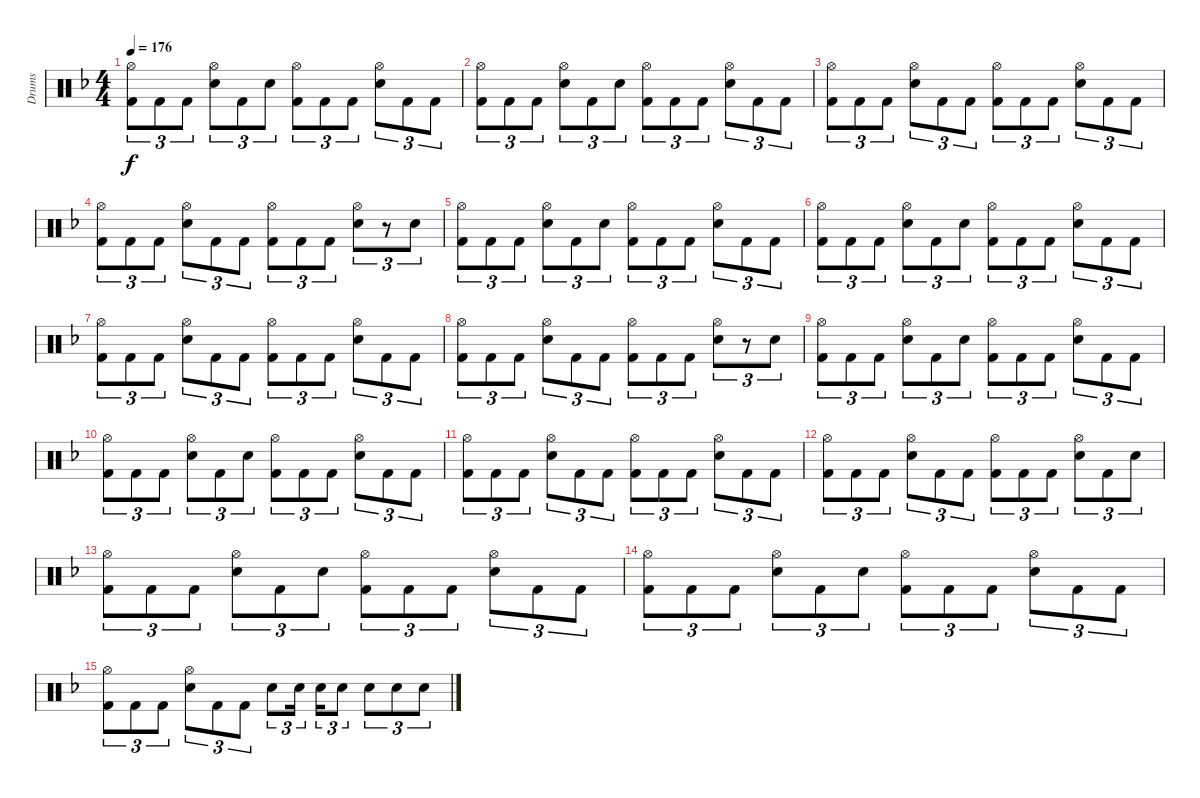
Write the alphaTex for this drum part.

\track ("Drums" "Drums") {instrument percussion}
\staff {score}
\articulation defaults
\ts (4 4)
\tempo 176
\clef neutral
\ks f
("Hi-Hat (open)" "Kick (hit) 2").8{tu (3 2) dy f} "Kick (hit) 2".8{tu (3 2)} "Kick (hit) 2".8{tu (3 2)} ("Hi-Hat (open)" "Snare (hit) 2").8{tu (3 2)} "Kick (hit) 2".8{tu (3 2)} "Snare (hit) 2".8{tu (3 2)} ("Hi-Hat (open)" "Kick (hit) 2").8{tu (3 2)} "Kick (hit) 2".8{tu (3 2)} "Kick (hit) 2".8{tu (3 2)} ("Hi-Hat (open)" "Snare (hit) 2").8{tu (3 2)} "Kick (hit) 2".8{tu (3 2)} "Kick (hit) 2".8{tu (3 2)} |
("Hi-Hat (open)" "Kick (hit) 2").8{tu (3 2)} "Kick (hit) 2".8{tu (3 2)} "Kick (hit) 2".8{tu (3 2)} ("Hi-Hat (open)" "Snare (hit) 2").8{tu (3 2)} "Kick (hit) 2".8{tu (3 2)} "Snare (hit) 2".8{tu (3 2)} ("Hi-Hat (open)" "Kick (hit) 2").8{tu (3 2)} "Kick (hit) 2".8{tu (3 2)} "Kick (hit) 2".8{tu (3 2)} ("Hi-Hat (open)" "Snare (hit) 2").8{tu (3 2)} "Kick (hit) 2".8{tu (3 2)} "Kick (hit) 2".8{tu (3 2)} |
("Hi-Hat (open)" "Kick (hit) 2").8{tu (3 2)} "Kick (hit) 2".8{tu (3 2)} "Kick (hit) 2".8{tu (3 2)} ("Hi-Hat (open)" "Snare (hit) 2").8{tu (3 2)} "Kick (hit) 2".8{tu (3 2)} "Kick (hit) 2".8{tu (3 2)} ("Hi-Hat (open)" "Kick (hit) 2").8{tu (3 2)} "Kick (hit) 2".8{tu (3 2)} "Kick (hit) 2".8{tu (3 2)} ("Hi-Hat (open)" "Snare (hit) 2").8{tu (3 2)} "Kick (hit) 2".8{tu (3 2)} "Kick (hit) 2".8{tu (3 2)} |
("Hi-Hat (open)" "Kick (hit) 2").8{tu (3 2)} "Kick (hit) 2".8{tu (3 2)} "Kick (hit) 2".8{tu (3 2)} ("Hi-Hat (open)" "Snare (hit) 2").8{tu (3 2)} "Kick (hit) 2".8{tu (3 2)} "Kick (hit) 2".8{tu (3 2)} ("Hi-Hat (open)" "Kick (hit) 2").8{tu (3 2)} "Kick (hit) 2".8{tu (3 2)} "Kick (hit) 2".8{tu (3 2)} ("Hi-Hat (open)" "Snare (hit) 2").8{tu (3 2)} r.8{tu (3 2)} "Snare (hit) 2".8{tu (3 2)} |
("Hi-Hat (open)" "Kick (hit) 2").8{tu (3 2)} "Kick (hit) 2".8{tu (3 2)} "Kick (hit) 2".8{tu (3 2)} ("Hi-Hat (open)" "Snare (hit) 2").8{tu (3 2)} "Kick (hit) 2".8{tu (3 2)} "Snare (hit) 2".8{tu (3 2)} ("Hi-Hat (open)" "Kick (hit) 2").8{tu (3 2)} "Kick (hit) 2".8{tu (3 2)} "Kick (hit) 2".8{tu (3 2)} ("Hi-Hat (open)" "Snare (hit) 2").8{tu (3 2)} "Kick (hit) 2".8{tu (3 2)} "Kick (hit) 2".8{tu (3 2)} |
("Hi-Hat (open)" "Kick (hit) 2").8{tu (3 2)} "Kick (hit) 2".8{tu (3 2)} "Kick (hit) 2".8{tu (3 2)} ("Hi-Hat (open)" "Snare (hit) 2").8{tu (3 2)} "Kick (hit) 2".8{tu (3 2)} "Snare (hit) 2".8{tu (3 2)} ("Hi-Hat (open)" "Kick (hit) 2").8{tu (3 2)} "Kick (hit) 2".8{tu (3 2)} "Kick (hit) 2".8{tu (3 2)} ("Hi-Hat (open)" "Snare (hit) 2").8{tu (3 2)} "Kick (hit) 2".8{tu (3 2)} "Kick (hit) 2".8{tu (3 2)} |
("Hi-Hat (open)" "Kick (hit) 2").8{tu (3 2)} "Kick (hit) 2".8{tu (3 2)} "Kick (hit) 2".8{tu (3 2)} ("Hi-Hat (open)" "Snare (hit) 2").8{tu (3 2)} "Kick (hit) 2".8{tu (3 2)} "Kick (hit) 2".8{tu (3 2)} ("Hi-Hat (open)" "Kick (hit) 2").8{tu (3 2)} "Kick (hit) 2".8{tu (3 2)} "Kick (hit) 2".8{tu (3 2)} ("Hi-Hat (open)" "Snare (hit) 2").8{tu (3 2)} "Kick (hit) 2".8{tu (3 2)} "Kick (hit) 2".8{tu (3 2)} |
("Hi-Hat (open)" "Kick (hit) 2").8{tu (3 2)} "Kick (hit) 2".8{tu (3 2)} "Kick (hit) 2".8{tu (3 2)} ("Hi-Hat (open)" "Snare (hit) 2").8{tu (3 2)} "Kick (hit) 2".8{tu (3 2)} "Kick (hit) 2".8{tu (3 2)} ("Hi-Hat (open)" "Kick (hit) 2").8{tu (3 2)} "Kick (hit) 2".8{tu (3 2)} "Kick (hit) 2".8{tu (3 2)} ("Hi-Hat (open)" "Snare (hit) 2").8{tu (3 2)} r.8{tu (3 2)} "Snare (hit) 2".8{tu (3 2)} |
("Hi-Hat (open)" "Kick (hit) 2").8{tu (3 2)} "Kick (hit) 2".8{tu (3 2)} "Kick (hit) 2".8{tu (3 2)} ("Hi-Hat (open)" "Snare (hit) 2").8{tu (3 2)} "Kick (hit) 2".8{tu (3 2)} "Snare (hit) 2".8{tu (3 2)} ("Hi-Hat (open)" "Kick (hit) 2").8{tu (3 2)} "Kick (hit) 2".8{tu (3 2)} "Kick (hit) 2".8{tu (3 2)} ("Hi-Hat (open)" "Snare (hit) 2").8{tu (3 2)} "Kick (hit) 2".8{tu (3 2)} "Kick (hit) 2".8{tu (3 2)} |
("Hi-Hat (open)" "Kick (hit) 2").8{tu (3 2)} "Kick (hit) 2".8{tu (3 2)} "Kick (hit) 2".8{tu (3 2)} ("Hi-Hat (open)" "Snare (hit) 2").8{tu (3 2)} "Kick (hit) 2".8{tu (3 2)} "Snare (hit) 2".8{tu (3 2)} ("Hi-Hat (open)" "Kick (hit) 2").8{tu (3 2)} "Kick (hit) 2".8{tu (3 2)} "Kick (hit) 2".8{tu (3 2)} ("Hi-Hat (open)" "Snare (hit) 2").8{tu (3 2)} "Kick (hit) 2".8{tu (3 2)} "Kick (hit) 2".8{tu (3 2)} |
("Hi-Hat (open)" "Kick (hit) 2").8{tu (3 2)} "Kick (hit) 2".8{tu (3 2)} "Kick (hit) 2".8{tu (3 2)} ("Hi-Hat (open)" "Snare (hit) 2").8{tu (3 2)} "Kick (hit) 2".8{tu (3 2)} "Kick (hit) 2".8{tu (3 2)} ("Hi-Hat (open)" "Kick (hit) 2").8{tu (3 2)} "Kick (hit) 2".8{tu (3 2)} "Kick (hit) 2".8{tu (3 2)} ("Hi-Hat (open)" "Snare (hit) 2").8{tu (3 2)} "Kick (hit) 2".8{tu (3 2)} "Kick (hit) 2".8{tu (3 2)} |
("Hi-Hat (open)" "Kick (hit) 2").8{tu (3 2)} "Kick (hit) 2".8{tu (3 2)} "Kick (hit) 2".8{tu (3 2)} ("Hi-Hat (open)" "Snare (hit) 2").8{tu (3 2)} "Kick (hit) 2".8{tu (3 2)} "Kick (hit) 2".8{tu (3 2)} ("Hi-Hat (open)" "Kick (hit) 2").8{tu (3 2)} "Kick (hit) 2".8{tu (3 2)} "Kick (hit) 2".8{tu (3 2)} ("Hi-Hat (open)" "Snare (hit) 2").8{tu (3 2)} "Kick (hit) 2".8{tu (3 2)} "Snare (hit) 2".8{tu (3 2)} |
("Hi-Hat (open)" "Kick (hit) 2").8{tu (3 2)} "Kick (hit) 2".8{tu (3 2)} "Kick (hit) 2".8{tu (3 2)} ("Hi-Hat (open)" "Snare (hit) 2").8{tu (3 2)} "Kick (hit) 2".8{tu (3 2)} "Snare (hit) 2".8{tu (3 2)} ("Hi-Hat (open)" "Kick (hit) 2").8{tu (3 2)} "Kick (hit) 2".8{tu (3 2)} "Kick (hit) 2".8{tu (3 2)} ("Hi-Hat (open)" "Snare (hit) 2").8{tu (3 2)} "Kick (hit) 2".8{tu (3 2)} "Kick (hit) 2".8{tu (3 2)} |
("Hi-Hat (open)" "Kick (hit) 2").8{tu (3 2)} "Kick (hit) 2".8{tu (3 2)} "Kick (hit) 2".8{tu (3 2)} ("Hi-Hat (open)" "Snare (hit) 2").8{tu (3 2)} "Kick (hit) 2".8{tu (3 2)} "Snare (hit) 2".8{tu (3 2)} ("Hi-Hat (open)" "Kick (hit) 2").8{tu (3 2)} "Kick (hit) 2".8{tu (3 2)} "Kick (hit) 2".8{tu (3 2)} ("Hi-Hat (open)" "Snare (hit) 2").8{tu (3 2)} "Kick (hit) 2".8{tu (3 2)} "Kick (hit) 2".8{tu (3 2)} |
("Hi-Hat (open)" "Kick (hit) 2").8{tu (3 2)} "Kick (hit) 2".8{tu (3 2)} "Kick (hit) 2".8{tu (3 2)} ("Hi-Hat (open)" "Snare (hit) 2").8{tu (3 2)} "Kick (hit) 2".8{tu (3 2)} "Kick (hit) 2".8{tu (3 2)} "Snare (hit) 2".8{tu (3 2)} "Snare (hit) 2".16{tu (3 2)} "Snare (hit) 2".16{tu (3 2)} "Snare (hit) 2".8{tu (3 2)} "Snare (hit) 2".8{tu (3 2)} "Snare (hit) 2".8{tu (3 2)} "Snare (hit) 2".8{tu (3 2)}
